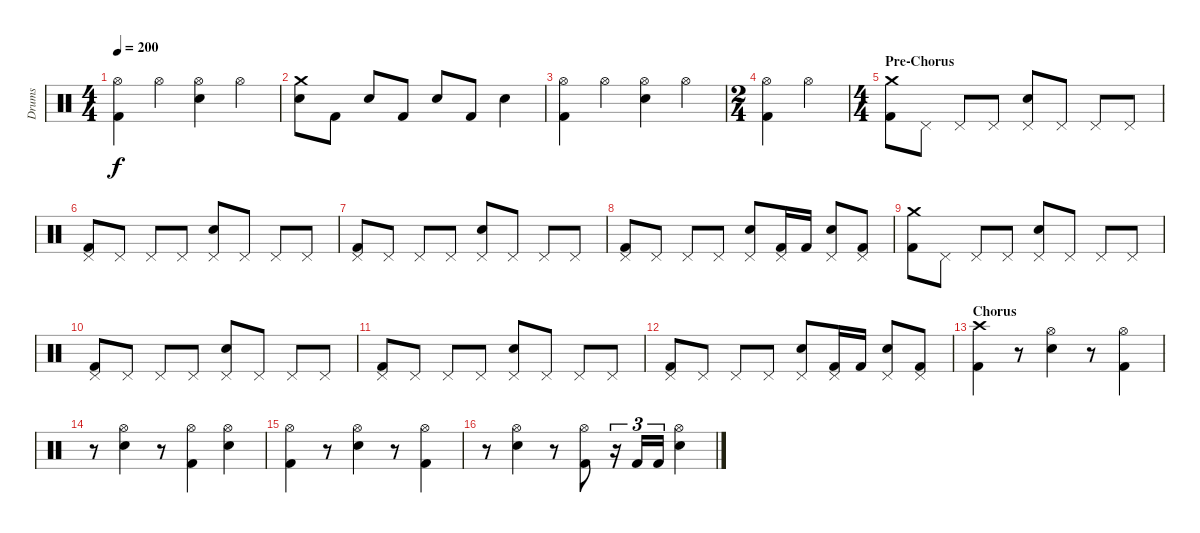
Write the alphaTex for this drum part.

\track ("Drums" "Drums") {instrument percussion}
\staff {score}
\articulation defaults
\ts (4 4)
\tempo 200
\clef neutral
\ks c
("Hi-Hat (open)" "Kick (hit) 2").4{dy f} "Hi-Hat (open)".4 ("Hi-Hat (open)" "Snare (hit) 2").4 "Hi-Hat (open)".4 |
("Crash medium (hit)" "Snare (hit) 2").8 "Kick (hit) 2".8 "Snare (hit) 2".8 "Kick (hit) 2".8 "Snare (hit) 2".8 "Kick (hit) 2".8 "Snare (hit) 2".4 |
("Hi-Hat (open)" "Kick (hit) 2").4 "Hi-Hat (open)".4 ("Hi-Hat (open)" "Snare (hit) 2").4 "Hi-Hat (open)".4 |
\ts (2 4)
("Hi-Hat (open)" "Kick (hit) 2").4 "Hi-Hat (open)".4 |
\ts (4 4)
\section ("" "Pre-Chorus")
("Crash medium (hit)" "Kick (hit) 2").8 "Pedal Hi-Hat (hit)".8 "Pedal Hi-Hat (hit)".8 "Pedal Hi-Hat (hit)".8 ("Pedal Hi-Hat (hit)" "Snare (hit) 2").8 "Pedal Hi-Hat (hit)".8 "Pedal Hi-Hat (hit)".8 "Pedal Hi-Hat (hit)".8 |
("Pedal Hi-Hat (hit)" "Kick (hit) 2").8 "Pedal Hi-Hat (hit)".8 "Pedal Hi-Hat (hit)".8 "Pedal Hi-Hat (hit)".8 ("Pedal Hi-Hat (hit)" "Snare (hit) 2").8 "Pedal Hi-Hat (hit)".8 "Pedal Hi-Hat (hit)".8 "Pedal Hi-Hat (hit)".8 |
("Pedal Hi-Hat (hit)" "Kick (hit) 2").8 "Pedal Hi-Hat (hit)".8 "Pedal Hi-Hat (hit)".8 "Pedal Hi-Hat (hit)".8 ("Pedal Hi-Hat (hit)" "Snare (hit) 2").8 "Pedal Hi-Hat (hit)".8 "Pedal Hi-Hat (hit)".8 "Pedal Hi-Hat (hit)".8 |
("Pedal Hi-Hat (hit)" "Kick (hit) 2").8 "Pedal Hi-Hat (hit)".8 "Pedal Hi-Hat (hit)".8 "Pedal Hi-Hat (hit)".8 ("Pedal Hi-Hat (hit)" "Snare (hit) 2").8 ("Pedal Hi-Hat (hit)" "Kick (hit) 2").16 "Kick (hit) 2".16 ("Pedal Hi-Hat (hit)" "Snare (hit) 2").8 ("Pedal Hi-Hat (hit)" "Kick (hit) 2").8 |
("Crash medium (hit)" "Kick (hit) 2").8 "Pedal Hi-Hat (hit)".8 "Pedal Hi-Hat (hit)".8 "Pedal Hi-Hat (hit)".8 ("Pedal Hi-Hat (hit)" "Snare (hit) 2").8 "Pedal Hi-Hat (hit)".8 "Pedal Hi-Hat (hit)".8 "Pedal Hi-Hat (hit)".8 |
("Pedal Hi-Hat (hit)" "Kick (hit) 2").8 "Pedal Hi-Hat (hit)".8 "Pedal Hi-Hat (hit)".8 "Pedal Hi-Hat (hit)".8 ("Pedal Hi-Hat (hit)" "Snare (hit) 2").8 "Pedal Hi-Hat (hit)".8 "Pedal Hi-Hat (hit)".8 "Pedal Hi-Hat (hit)".8 |
("Pedal Hi-Hat (hit)" "Kick (hit) 2").8 "Pedal Hi-Hat (hit)".8 "Pedal Hi-Hat (hit)".8 "Pedal Hi-Hat (hit)".8 ("Pedal Hi-Hat (hit)" "Snare (hit) 2").8 "Pedal Hi-Hat (hit)".8 "Pedal Hi-Hat (hit)".8 "Pedal Hi-Hat (hit)".8 |
("Pedal Hi-Hat (hit)" "Kick (hit) 2").8 "Pedal Hi-Hat (hit)".8 "Pedal Hi-Hat (hit)".8 "Pedal Hi-Hat (hit)".8 ("Pedal Hi-Hat (hit)" "Snare (hit) 2").8 ("Pedal Hi-Hat (hit)" "Kick (hit) 2").16 "Kick (hit) 2".16 ("Pedal Hi-Hat (hit)" "Snare (hit) 2").8 ("Pedal Hi-Hat (hit)" "Kick (hit) 2").8 |
\section ("" "Chorus")
("Crash high (hit)" "Kick (hit) 2").4 r.8 ("Hi-Hat (open)" "Snare (hit) 2").4 r.8 ("Hi-Hat (open)" "Kick (hit) 2").4 |
r.8 ("Hi-Hat (open)" "Snare (hit) 2").4 r.8 ("Hi-Hat (open)" "Kick (hit) 2").4 ("Hi-Hat (open)" "Snare (hit) 2").4 |
("Hi-Hat (open)" "Kick (hit) 2").4 r.8 ("Hi-Hat (open)" "Snare (hit) 2").4 r.8 ("Hi-Hat (open)" "Kick (hit) 2").4 |
r.8 ("Hi-Hat (open)" "Snare (hit) 2").4 r.8 ("Hi-Hat (open)" "Kick (hit) 2").8 r.16{tu (3 2)} "Kick (hit) 2".16{tu (3 2)} "Kick (hit) 2".16{tu (3 2)} ("Hi-Hat (open)" "Snare (hit) 2").4
